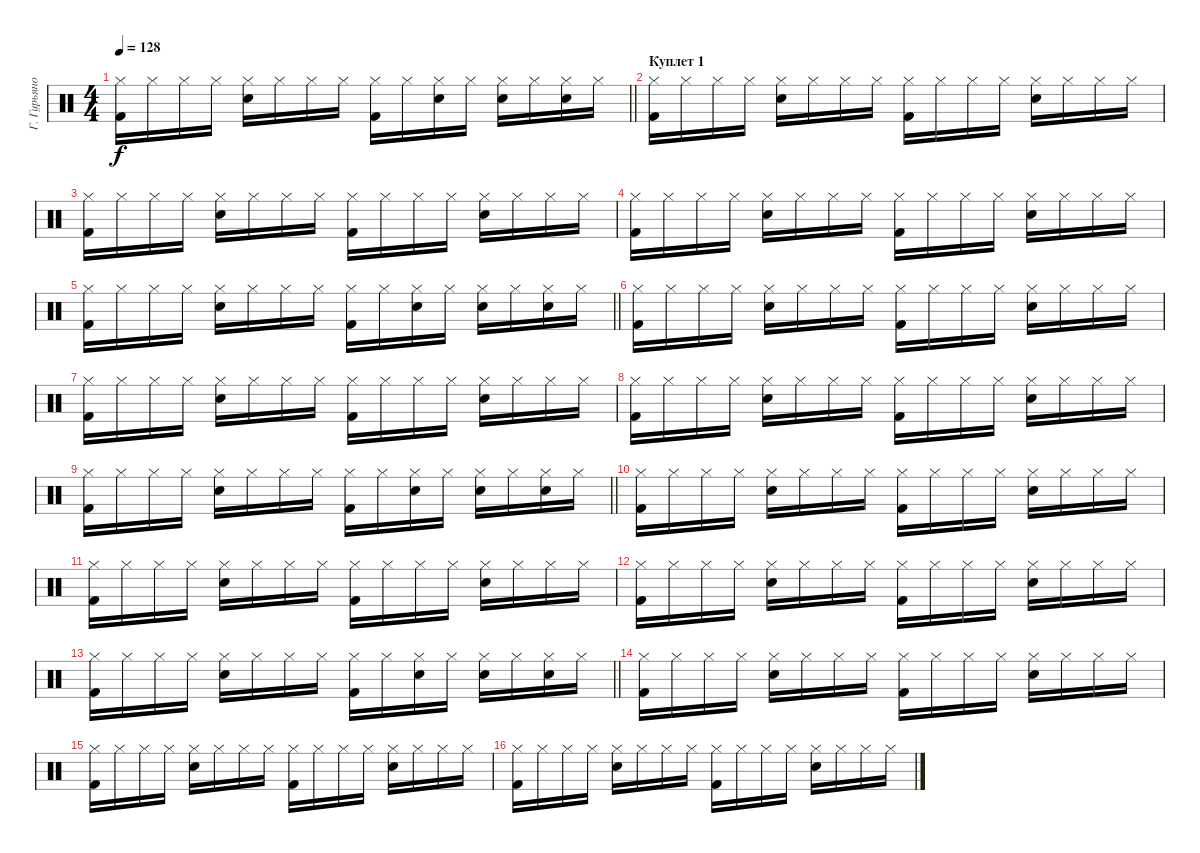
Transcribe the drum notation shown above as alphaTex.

\track ("Г. Гурьянов" "Г. Гурьяно") {instrument percussion}
\staff
\articulation defaults
\ts (4 4)
\tempo 128
\clef neutral
\barLineRight lightlight
\ks c
("Hi-Hat (closed)" "Kick (hit) 2").16{dy f} "Hi-Hat (closed)".16 "Hi-Hat (closed)".16 "Hi-Hat (closed)".16 ("Hi-Hat (closed)" "Snare (hit) 2").16 "Hi-Hat (closed)".16 "Hi-Hat (closed)".16 "Hi-Hat (closed)".16 ("Hi-Hat (closed)" "Kick (hit) 2").16 "Hi-Hat (closed)".16 ("Hi-Hat (closed)" "Snare (hit) 2").16 "Hi-Hat (closed)".16 ("Hi-Hat (closed)" "Snare (hit) 2").16 "Hi-Hat (closed)".16 ("Hi-Hat (closed)" "Snare (hit) 2").16 "Hi-Hat (closed)".16 |
\section ("" "Куплет 1")
("Hi-Hat (closed)" "Kick (hit) 2").16 "Hi-Hat (closed)".16 "Hi-Hat (closed)".16 "Hi-Hat (closed)".16 ("Hi-Hat (closed)" "Snare (hit) 2").16 "Hi-Hat (closed)".16 "Hi-Hat (closed)".16 "Hi-Hat (closed)".16 ("Hi-Hat (closed)" "Kick (hit) 2").16 "Hi-Hat (closed)".16 "Hi-Hat (closed)".16 "Hi-Hat (closed)".16 ("Hi-Hat (closed)" "Snare (hit) 2").16 "Hi-Hat (closed)".16 "Hi-Hat (closed)".16 "Hi-Hat (closed)".16 |
("Hi-Hat (closed)" "Kick (hit) 2").16 "Hi-Hat (closed)".16 "Hi-Hat (closed)".16 "Hi-Hat (closed)".16 ("Hi-Hat (closed)" "Snare (hit) 2").16 "Hi-Hat (closed)".16 "Hi-Hat (closed)".16 "Hi-Hat (closed)".16 ("Hi-Hat (closed)" "Kick (hit) 2").16 "Hi-Hat (closed)".16 "Hi-Hat (closed)".16 "Hi-Hat (closed)".16 ("Hi-Hat (closed)" "Snare (hit) 2").16 "Hi-Hat (closed)".16 "Hi-Hat (closed)".16 "Hi-Hat (closed)".16 |
("Hi-Hat (closed)" "Kick (hit) 2").16 "Hi-Hat (closed)".16 "Hi-Hat (closed)".16 "Hi-Hat (closed)".16 ("Hi-Hat (closed)" "Snare (hit) 2").16 "Hi-Hat (closed)".16 "Hi-Hat (closed)".16 "Hi-Hat (closed)".16 ("Hi-Hat (closed)" "Kick (hit) 2").16 "Hi-Hat (closed)".16 "Hi-Hat (closed)".16 "Hi-Hat (closed)".16 ("Hi-Hat (closed)" "Snare (hit) 2").16 "Hi-Hat (closed)".16 "Hi-Hat (closed)".16 "Hi-Hat (closed)".16 |
\barLineRight lightlight
("Hi-Hat (closed)" "Kick (hit) 2").16 "Hi-Hat (closed)".16 "Hi-Hat (closed)".16 "Hi-Hat (closed)".16 ("Hi-Hat (closed)" "Snare (hit) 2").16 "Hi-Hat (closed)".16 "Hi-Hat (closed)".16 "Hi-Hat (closed)".16 ("Hi-Hat (closed)" "Kick (hit) 2").16 "Hi-Hat (closed)".16 ("Hi-Hat (closed)" "Snare (hit) 2").16 "Hi-Hat (closed)".16 ("Hi-Hat (closed)" "Snare (hit) 2").16 "Hi-Hat (closed)".16 ("Hi-Hat (closed)" "Snare (hit) 2").16 "Hi-Hat (closed)".16 |
("Hi-Hat (closed)" "Kick (hit) 2").16 "Hi-Hat (closed)".16 "Hi-Hat (closed)".16 "Hi-Hat (closed)".16 ("Hi-Hat (closed)" "Snare (hit) 2").16 "Hi-Hat (closed)".16 "Hi-Hat (closed)".16 "Hi-Hat (closed)".16 ("Hi-Hat (closed)" "Kick (hit) 2").16 "Hi-Hat (closed)".16 "Hi-Hat (closed)".16 "Hi-Hat (closed)".16 ("Hi-Hat (closed)" "Snare (hit) 2").16 "Hi-Hat (closed)".16 "Hi-Hat (closed)".16 "Hi-Hat (closed)".16 |
("Hi-Hat (closed)" "Kick (hit) 2").16 "Hi-Hat (closed)".16 "Hi-Hat (closed)".16 "Hi-Hat (closed)".16 ("Hi-Hat (closed)" "Snare (hit) 2").16 "Hi-Hat (closed)".16 "Hi-Hat (closed)".16 "Hi-Hat (closed)".16 ("Hi-Hat (closed)" "Kick (hit) 2").16 "Hi-Hat (closed)".16 "Hi-Hat (closed)".16 "Hi-Hat (closed)".16 ("Hi-Hat (closed)" "Snare (hit) 2").16 "Hi-Hat (closed)".16 "Hi-Hat (closed)".16 "Hi-Hat (closed)".16 |
("Hi-Hat (closed)" "Kick (hit) 2").16 "Hi-Hat (closed)".16 "Hi-Hat (closed)".16 "Hi-Hat (closed)".16 ("Hi-Hat (closed)" "Snare (hit) 2").16 "Hi-Hat (closed)".16 "Hi-Hat (closed)".16 "Hi-Hat (closed)".16 ("Hi-Hat (closed)" "Kick (hit) 2").16 "Hi-Hat (closed)".16 "Hi-Hat (closed)".16 "Hi-Hat (closed)".16 ("Hi-Hat (closed)" "Snare (hit) 2").16 "Hi-Hat (closed)".16 "Hi-Hat (closed)".16 "Hi-Hat (closed)".16 |
\barLineRight lightlight
("Hi-Hat (closed)" "Kick (hit) 2").16 "Hi-Hat (closed)".16 "Hi-Hat (closed)".16 "Hi-Hat (closed)".16 ("Hi-Hat (closed)" "Snare (hit) 2").16 "Hi-Hat (closed)".16 "Hi-Hat (closed)".16 "Hi-Hat (closed)".16 ("Hi-Hat (closed)" "Kick (hit) 2").16 "Hi-Hat (closed)".16 ("Hi-Hat (closed)" "Snare (hit) 2").16 "Hi-Hat (closed)".16 ("Hi-Hat (closed)" "Snare (hit) 2").16 "Hi-Hat (closed)".16 ("Hi-Hat (closed)" "Snare (hit) 2").16 "Hi-Hat (closed)".16 |
("Hi-Hat (closed)" "Kick (hit) 2").16 "Hi-Hat (closed)".16 "Hi-Hat (closed)".16 "Hi-Hat (closed)".16 ("Hi-Hat (closed)" "Snare (hit) 2").16 "Hi-Hat (closed)".16 "Hi-Hat (closed)".16 "Hi-Hat (closed)".16 ("Hi-Hat (closed)" "Kick (hit) 2").16 "Hi-Hat (closed)".16 "Hi-Hat (closed)".16 "Hi-Hat (closed)".16 ("Hi-Hat (closed)" "Snare (hit) 2").16 "Hi-Hat (closed)".16 "Hi-Hat (closed)".16 "Hi-Hat (closed)".16 |
("Hi-Hat (closed)" "Kick (hit) 2").16 "Hi-Hat (closed)".16 "Hi-Hat (closed)".16 "Hi-Hat (closed)".16 ("Hi-Hat (closed)" "Snare (hit) 2").16 "Hi-Hat (closed)".16 "Hi-Hat (closed)".16 "Hi-Hat (closed)".16 ("Hi-Hat (closed)" "Kick (hit) 2").16 "Hi-Hat (closed)".16 "Hi-Hat (closed)".16 "Hi-Hat (closed)".16 ("Hi-Hat (closed)" "Snare (hit) 2").16 "Hi-Hat (closed)".16 "Hi-Hat (closed)".16 "Hi-Hat (closed)".16 |
("Hi-Hat (closed)" "Kick (hit) 2").16 "Hi-Hat (closed)".16 "Hi-Hat (closed)".16 "Hi-Hat (closed)".16 ("Hi-Hat (closed)" "Snare (hit) 2").16 "Hi-Hat (closed)".16 "Hi-Hat (closed)".16 "Hi-Hat (closed)".16 ("Hi-Hat (closed)" "Kick (hit) 2").16 "Hi-Hat (closed)".16 "Hi-Hat (closed)".16 "Hi-Hat (closed)".16 ("Hi-Hat (closed)" "Snare (hit) 2").16 "Hi-Hat (closed)".16 "Hi-Hat (closed)".16 "Hi-Hat (closed)".16 |
\barLineRight lightlight
("Hi-Hat (closed)" "Kick (hit) 2").16 "Hi-Hat (closed)".16 "Hi-Hat (closed)".16 "Hi-Hat (closed)".16 ("Hi-Hat (closed)" "Snare (hit) 2").16 "Hi-Hat (closed)".16 "Hi-Hat (closed)".16 "Hi-Hat (closed)".16 ("Hi-Hat (closed)" "Kick (hit) 2").16 "Hi-Hat (closed)".16 ("Hi-Hat (closed)" "Snare (hit) 2").16 "Hi-Hat (closed)".16 ("Hi-Hat (closed)" "Snare (hit) 2").16 "Hi-Hat (closed)".16 ("Hi-Hat (closed)" "Snare (hit) 2").16 "Hi-Hat (closed)".16 |
("Hi-Hat (closed)" "Kick (hit) 2").16 "Hi-Hat (closed)".16 "Hi-Hat (closed)".16 "Hi-Hat (closed)".16 ("Hi-Hat (closed)" "Snare (hit) 2").16 "Hi-Hat (closed)".16 "Hi-Hat (closed)".16 "Hi-Hat (closed)".16 ("Hi-Hat (closed)" "Kick (hit) 2").16 "Hi-Hat (closed)".16 "Hi-Hat (closed)".16 "Hi-Hat (closed)".16 ("Hi-Hat (closed)" "Snare (hit) 2").16 "Hi-Hat (closed)".16 "Hi-Hat (closed)".16 "Hi-Hat (closed)".16 |
("Hi-Hat (closed)" "Kick (hit) 2").16 "Hi-Hat (closed)".16 "Hi-Hat (closed)".16 "Hi-Hat (closed)".16 ("Hi-Hat (closed)" "Snare (hit) 2").16 "Hi-Hat (closed)".16 "Hi-Hat (closed)".16 "Hi-Hat (closed)".16 ("Hi-Hat (closed)" "Kick (hit) 2").16 "Hi-Hat (closed)".16 "Hi-Hat (closed)".16 "Hi-Hat (closed)".16 ("Hi-Hat (closed)" "Snare (hit) 2").16 "Hi-Hat (closed)".16 "Hi-Hat (closed)".16 "Hi-Hat (closed)".16 |
("Hi-Hat (closed)" "Kick (hit) 2").16 "Hi-Hat (closed)".16 "Hi-Hat (closed)".16 "Hi-Hat (closed)".16 ("Hi-Hat (closed)" "Snare (hit) 2").16 "Hi-Hat (closed)".16 "Hi-Hat (closed)".16 "Hi-Hat (closed)".16 ("Hi-Hat (closed)" "Kick (hit) 2").16 "Hi-Hat (closed)".16 "Hi-Hat (closed)".16 "Hi-Hat (closed)".16 ("Hi-Hat (closed)" "Snare (hit) 2").16 "Hi-Hat (closed)".16 "Hi-Hat (closed)".16 "Hi-Hat (closed)".16
